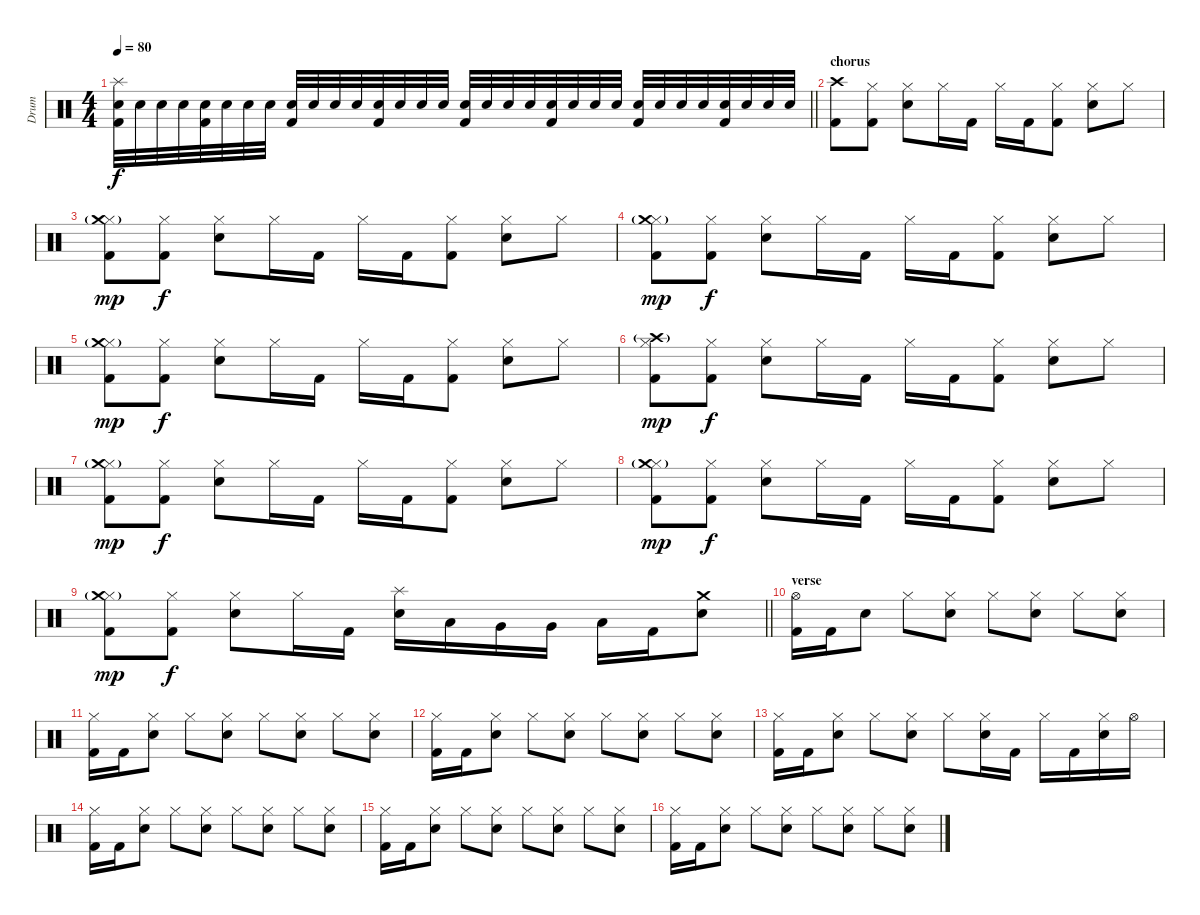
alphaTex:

\track ("Drum" "Drum") {instrument percussion}
\staff {score}
\articulation defaults
\ts (4 4)
\tempo 80
\clef neutral
\barLineRight lightlight
\ks c
("Electric Snare (hit)" "Kick (hit) 2" "Splash (hit)").32{dy f volume 8} "Electric Snare (hit)".32 "Electric Snare (hit)".32 "Electric Snare (hit)".32 ("Electric Snare (hit)" "Kick (hit) 2").32 "Electric Snare (hit)".32 "Electric Snare (hit)".32 "Electric Snare (hit)".32 ("Electric Snare (hit)" "Kick (hit) 2").32{volume 10} "Electric Snare (hit)".32 "Electric Snare (hit)".32 "Electric Snare (hit)".32 ("Electric Snare (hit)" "Kick (hit) 2").32 "Electric Snare (hit)".32 "Electric Snare (hit)".32 "Electric Snare (hit)".32 ("Electric Snare (hit)" "Kick (hit) 2").32{volume 12} "Electric Snare (hit)".32 "Electric Snare (hit)".32 "Electric Snare (hit)".32 ("Electric Snare (hit)" "Kick (hit) 2").32 "Electric Snare (hit)".32 "Electric Snare (hit)".32 "Electric Snare (hit)".32 ("Electric Snare (hit)" "Kick (hit) 2").32{volume 14} "Electric Snare (hit)".32 "Electric Snare (hit)".32 "Electric Snare (hit)".32 ("Electric Snare (hit)" "Kick (hit) 2").32 "Electric Snare (hit)".32 "Electric Snare (hit)".32 "Electric Snare (hit)".32 |
\section ("" "chorus")
("Crash high (hit)" "Kick (hit) 2").8 ("Hi-Hat (closed)" "Kick (hit) 2").8 ("Hi-Hat (closed)" "Electric Snare (hit)").8 "Hi-Hat (closed)".16 "Kick (hit) 2".16 "Hi-Hat (closed)".16 "Kick (hit) 2".16 ("Hi-Hat (closed)" "Kick (hit) 2").8 ("Hi-Hat (closed)" "Electric Snare (hit)").8 "Hi-Hat (closed)".8 |
("Hi-Hat (closed)" "Kick (hit) 2" "Crash medium (hit)"{g}).8{dy mp} ("Hi-Hat (closed)" "Kick (hit) 2").8{dy f} ("Hi-Hat (closed)" "Electric Snare (hit)").8 "Hi-Hat (closed)".16 "Kick (hit) 2".16 "Hi-Hat (closed)".16 "Kick (hit) 2".16 ("Hi-Hat (closed)" "Kick (hit) 2").8 ("Hi-Hat (closed)" "Electric Snare (hit)").8 "Hi-Hat (closed)".8 |
("Hi-Hat (closed)" "Kick (hit) 2" "Crash medium (hit)"{g}).8{dy mp} ("Hi-Hat (closed)" "Kick (hit) 2").8{dy f} ("Hi-Hat (closed)" "Electric Snare (hit)").8 "Hi-Hat (closed)".16 "Kick (hit) 2".16 "Hi-Hat (closed)".16 "Kick (hit) 2".16 ("Hi-Hat (closed)" "Kick (hit) 2").8 ("Hi-Hat (closed)" "Electric Snare (hit)").8 "Hi-Hat (closed)".8 |
("Hi-Hat (closed)" "Kick (hit) 2" "Crash medium (hit)"{g}).8{dy mp} ("Hi-Hat (closed)" "Kick (hit) 2").8{dy f} ("Hi-Hat (closed)" "Electric Snare (hit)").8 "Hi-Hat (closed)".16 "Kick (hit) 2".16 "Hi-Hat (closed)".16 "Kick (hit) 2".16 ("Hi-Hat (closed)" "Kick (hit) 2").8 ("Hi-Hat (closed)" "Electric Snare (hit)").8 "Hi-Hat (closed)".8 |
("Hi-Hat (closed)" "Kick (hit) 2" "Crash high (hit)"{g}).8{dy mp} ("Hi-Hat (closed)" "Kick (hit) 2").8{dy f} ("Hi-Hat (closed)" "Electric Snare (hit)").8 "Hi-Hat (closed)".16 "Kick (hit) 2".16 "Hi-Hat (closed)".16 "Kick (hit) 2".16 ("Hi-Hat (closed)" "Kick (hit) 2").8 ("Hi-Hat (closed)" "Electric Snare (hit)").8 "Hi-Hat (closed)".8 |
("Hi-Hat (closed)" "Kick (hit) 2" "Crash medium (hit)"{g}).8{dy mp} ("Hi-Hat (closed)" "Kick (hit) 2").8{dy f} ("Hi-Hat (closed)" "Electric Snare (hit)").8 "Hi-Hat (closed)".16 "Kick (hit) 2".16 "Hi-Hat (closed)".16 "Kick (hit) 2".16 ("Hi-Hat (closed)" "Kick (hit) 2").8 ("Hi-Hat (closed)" "Electric Snare (hit)").8 "Hi-Hat (closed)".8 |
("Hi-Hat (closed)" "Kick (hit) 2" "Crash medium (hit)"{g}).8{dy mp} ("Hi-Hat (closed)" "Kick (hit) 2").8{dy f} ("Hi-Hat (closed)" "Electric Snare (hit)").8 "Hi-Hat (closed)".16 "Kick (hit) 2".16 "Hi-Hat (closed)".16 "Kick (hit) 2".16 ("Hi-Hat (closed)" "Kick (hit) 2").8 ("Hi-Hat (closed)" "Electric Snare (hit)").8 "Hi-Hat (closed)".8 |
\barLineRight lightlight
("Hi-Hat (closed)" "Kick (hit) 2" "Crash medium (hit)"{g}).8{dy mp} ("Hi-Hat (closed)" "Kick (hit) 2").8{dy f} ("Hi-Hat (closed)" "Electric Snare (hit)").8 "Hi-Hat (closed)".16 "Kick (hit) 2".16 ("Splash (hit)" "Electric Snare (hit)").16 "Low Tom (hit)".16 "Very Low Tom (hit)".16 "Very Low Tom (hit)".16 "Low Floor Tom (hit)".16 "Kick (hit) 2".16 ("Crash medium (hit)" "Electric Snare (hit)").8 |
\section ("" "verse")
("Hi-Hat (open)" "Kick (hit) 2").16 "Kick (hit) 2".16 "Electric Snare (hit)".8 "Hi-Hat (closed)".8 ("Hi-Hat (closed)" "Electric Snare (hit)").8 "Hi-Hat (closed)".8 ("Hi-Hat (closed)" "Electric Snare (hit)").8 "Hi-Hat (closed)".8 ("Hi-Hat (closed)" "Electric Snare (hit)").8 |
("Hi-Hat (closed)" "Kick (hit) 2").16 "Kick (hit) 2".16 ("Hi-Hat (closed)" "Electric Snare (hit)").8 "Hi-Hat (closed)".8 ("Hi-Hat (closed)" "Electric Snare (hit)").8 "Hi-Hat (closed)".8 ("Hi-Hat (closed)" "Electric Snare (hit)").8 "Hi-Hat (closed)".8 ("Hi-Hat (closed)" "Electric Snare (hit)").8 |
("Hi-Hat (closed)" "Kick (hit) 2").16 "Kick (hit) 2".16 ("Hi-Hat (closed)" "Electric Snare (hit)").8 "Hi-Hat (closed)".8 ("Hi-Hat (closed)" "Electric Snare (hit)").8 "Hi-Hat (closed)".8 ("Hi-Hat (closed)" "Electric Snare (hit)").8 "Hi-Hat (closed)".8 ("Hi-Hat (closed)" "Electric Snare (hit)").8 |
("Hi-Hat (closed)" "Kick (hit) 2").16 "Kick (hit) 2".16 ("Hi-Hat (closed)" "Electric Snare (hit)").8 "Hi-Hat (closed)".8 ("Hi-Hat (closed)" "Electric Snare (hit)").8 "Hi-Hat (closed)".8 ("Hi-Hat (closed)" "Electric Snare (hit)").16 "Kick (hit) 2".16 "Hi-Hat (closed)".16 "Kick (hit) 2".16 ("Hi-Hat (closed)" "Electric Snare (hit)").16 "Hi-Hat (open)".16 |
("Hi-Hat (closed)" "Kick (hit) 2").16 "Kick (hit) 2".16 ("Hi-Hat (closed)" "Electric Snare (hit)").8 "Hi-Hat (closed)".8 ("Hi-Hat (closed)" "Electric Snare (hit)").8 "Hi-Hat (closed)".8 ("Hi-Hat (closed)" "Electric Snare (hit)").8 "Hi-Hat (closed)".8 ("Hi-Hat (closed)" "Electric Snare (hit)").8 |
("Hi-Hat (closed)" "Kick (hit) 2").16 "Kick (hit) 2".16 ("Hi-Hat (closed)" "Electric Snare (hit)").8 "Hi-Hat (closed)".8 ("Hi-Hat (closed)" "Electric Snare (hit)").8 "Hi-Hat (closed)".8 ("Hi-Hat (closed)" "Electric Snare (hit)").8 "Hi-Hat (closed)".8 ("Hi-Hat (closed)" "Electric Snare (hit)").8 |
("Hi-Hat (closed)" "Kick (hit) 2").16 "Kick (hit) 2".16 ("Hi-Hat (closed)" "Electric Snare (hit)").8 "Hi-Hat (closed)".8 ("Hi-Hat (closed)" "Electric Snare (hit)").8 "Hi-Hat (closed)".8 ("Hi-Hat (closed)" "Electric Snare (hit)").8 "Hi-Hat (closed)".8 ("Hi-Hat (closed)" "Electric Snare (hit)").8
